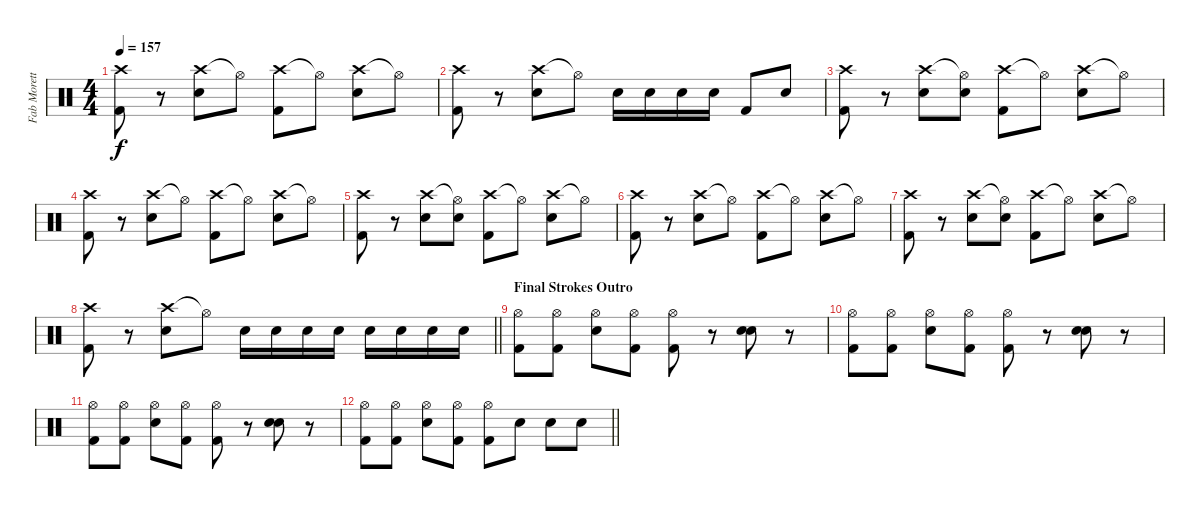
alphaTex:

\track ("Fab Moretti - Drums" "Fab Morett") {instrument percussion bank 177}
\staff {score}
\articulation defaults
\ts (4 4)
\tempo 157
\clef neutral
\ks c
("Crash high (hit)" "Kick (hit) 2").8{dy f} r.8 ("Crash high (hit)" "Electric Snare (hit)").8 "Hi-Hat (open)"{t}.8 ("Crash high (hit)" "Kick (hit) 2").8 "Hi-Hat (open)"{t}.8 ("Crash high (hit)" "Electric Snare (hit)").8 "Hi-Hat (open)"{t}.8 |
("Crash high (hit)" "Kick (hit) 2").8 r.8 ("Crash high (hit)" "Electric Snare (hit)").8 "Hi-Hat (open)"{t}.8 "Electric Snare (hit)".16 "Electric Snare (hit)".16 "Electric Snare (hit)".16 "Electric Snare (hit)".16 "Kick (hit) 2".8 "Electric Snare (hit)".8 |
("Crash high (hit)" "Kick (hit) 2").8 r.8 ("Crash high (hit)" "Electric Snare (hit)").8 ("Hi-Hat (open)"{t} "Electric Snare (hit)").8 ("Crash high (hit)" "Kick (hit) 2").8 "Hi-Hat (open)"{t}.8 ("Crash high (hit)" "Electric Snare (hit)").8 "Hi-Hat (open)"{t}.8 |
("Crash high (hit)" "Kick (hit) 2").8 r.8 ("Crash high (hit)" "Electric Snare (hit)").8 "Hi-Hat (open)"{t}.8 ("Crash high (hit)" "Kick (hit) 2").8 "Hi-Hat (open)"{t}.8 ("Crash high (hit)" "Electric Snare (hit)").8 "Hi-Hat (open)"{t}.8 |
("Crash high (hit)" "Kick (hit) 2").8 r.8 ("Crash high (hit)" "Electric Snare (hit)").8 ("Hi-Hat (open)"{t} "Electric Snare (hit)").8 ("Crash high (hit)" "Kick (hit) 2").8 "Hi-Hat (open)"{t}.8 ("Crash high (hit)" "Electric Snare (hit)").8 "Hi-Hat (open)"{t}.8 |
("Crash high (hit)" "Kick (hit) 2").8 r.8 ("Crash high (hit)" "Electric Snare (hit)").8 "Hi-Hat (open)"{t}.8 ("Crash high (hit)" "Kick (hit) 2").8 "Hi-Hat (open)"{t}.8 ("Crash high (hit)" "Electric Snare (hit)").8 "Hi-Hat (open)"{t}.8 |
("Crash high (hit)" "Kick (hit) 2").8 r.8 ("Crash high (hit)" "Electric Snare (hit)").8 ("Hi-Hat (open)"{t} "Electric Snare (hit)").8 ("Crash high (hit)" "Kick (hit) 2").8 "Hi-Hat (open)"{t}.8 ("Crash high (hit)" "Electric Snare (hit)").8 "Hi-Hat (open)"{t}.8 |
\barLineRight lightlight
("Crash high (hit)" "Kick (hit) 2").8 r.8 ("Crash high (hit)" "Electric Snare (hit)").8 "Hi-Hat (open)"{t}.8 "Electric Snare (hit)".16 "Electric Snare (hit)".16 "Electric Snare (hit)".16 "Electric Snare (hit)".16 "Electric Snare (hit)".16 "Electric Snare (hit)".16 "Electric Snare (hit)".16 "Electric Snare (hit)".16 |
\section ("" "Final Strokes Outro")
("Hi-Hat (open)" "Kick (hit) 2").8 ("Hi-Hat (open)" "Kick (hit) 2").8 ("Hi-Hat (open)" "Electric Snare (hit)").8 ("Hi-Hat (open)" "Kick (hit) 2").8 ("Hi-Hat (open)" "Kick (hit) 2").8 r.8 ("Electric Snare (hit)" "Electric Snare (hit)").8 r.8 |
("Hi-Hat (open)" "Kick (hit) 2").8 ("Hi-Hat (open)" "Kick (hit) 2").8 ("Hi-Hat (open)" "Electric Snare (hit)").8 ("Hi-Hat (open)" "Kick (hit) 2").8 ("Hi-Hat (open)" "Kick (hit) 2").8 r.8 ("Electric Snare (hit)" "Electric Snare (hit)").8 r.8 |
("Hi-Hat (open)" "Kick (hit) 2").8 ("Hi-Hat (open)" "Kick (hit) 2").8 ("Hi-Hat (open)" "Electric Snare (hit)").8 ("Hi-Hat (open)" "Kick (hit) 2").8 ("Hi-Hat (open)" "Kick (hit) 2").8 r.8 ("Electric Snare (hit)" "Electric Snare (hit)").8 r.8 |
\barLineRight lightlight
("Hi-Hat (open)" "Kick (hit) 2").8 ("Hi-Hat (open)" "Kick (hit) 2").8 ("Hi-Hat (open)" "Electric Snare (hit)").8 ("Hi-Hat (open)" "Kick (hit) 2").8 ("Hi-Hat (open)" "Kick (hit) 2").8 "Electric Snare (hit)".8 "Electric Snare (hit)".8 "Electric Snare (hit)".8
